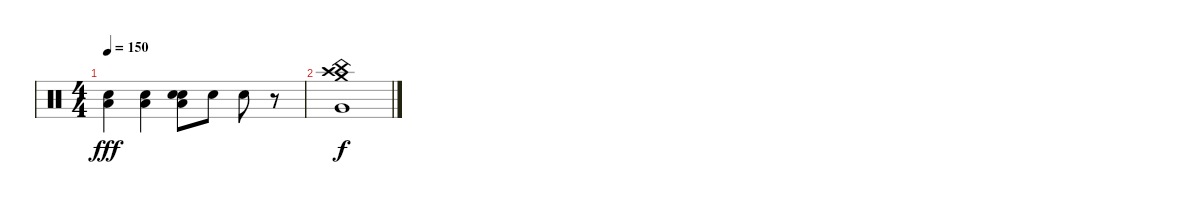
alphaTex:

\track "" {instrument percussion}
\staff {score}
\articulation defaults
\ts (4 4)
\tempo 150
\clef neutral
\ks c
("Low Floor Tom (hit)" "Snare (hit) 2").4{dy fff} ("Low Floor Tom (hit)" "Snare (hit) 2").4 ("Electric Snare (hit)" "Low Floor Tom (hit)" "Snare (hit) 2").8 "Electric Snare (hit)".8 "Electric Snare (hit)".8 r.8 |
("Crash medium (hit)" "China (hit)" "Crash high (hit)" "Very Low Tom (hit)").1{dy f}
